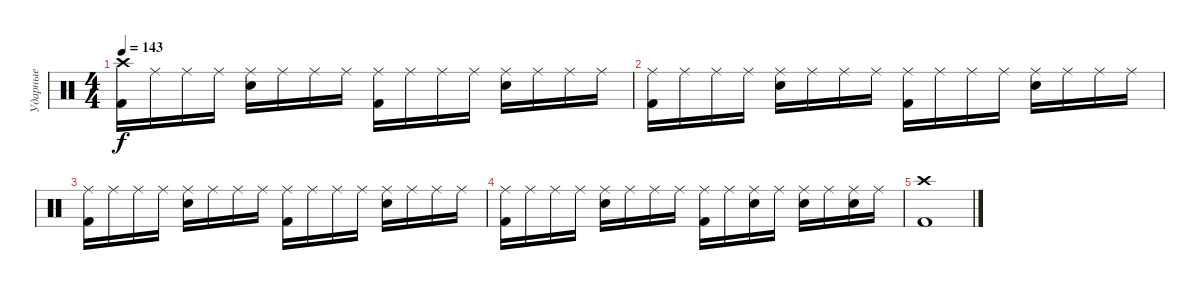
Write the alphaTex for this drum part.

\track ("Ударные" "Ударные") {instrument percussion}
\staff {score}
\articulation defaults
\ts (4 4)
\tempo 143
\clef neutral
\ks c
("Crash high (hit)" "Kick (hit) 2").16{dy f} "Ride (middle)".16 "Ride (middle)".16 "Ride (middle)".16 ("Ride (middle)" "Electric Snare (hit)").16 "Ride (middle)".16 "Ride (middle)".16 "Ride (middle)".16 ("Ride (middle)" "Kick (hit) 2").16 "Ride (middle)".16 "Ride (middle)".16 "Ride (middle)".16 ("Ride (middle)" "Electric Snare (hit)").16 "Ride (middle)".16 "Ride (middle)".16 "Ride (middle)".16 |
("Ride (middle)" "Kick (hit) 2").16 "Ride (middle)".16 "Ride (middle)".16 "Ride (middle)".16 ("Ride (middle)" "Electric Snare (hit)").16 "Ride (middle)".16 "Ride (middle)".16 "Ride (middle)".16 ("Ride (middle)" "Kick (hit) 2").16 "Ride (middle)".16 "Ride (middle)".16 "Ride (middle)".16 ("Ride (middle)" "Electric Snare (hit)").16 "Ride (middle)".16 "Ride (middle)".16 "Ride (middle)".16 |
("Ride (middle)" "Kick (hit) 2").16 "Ride (middle)".16 "Ride (middle)".16 "Ride (middle)".16 ("Ride (middle)" "Electric Snare (hit)").16 "Ride (middle)".16 "Ride (middle)".16 "Ride (middle)".16 ("Ride (middle)" "Kick (hit) 2").16 "Ride (middle)".16 "Ride (middle)".16 "Ride (middle)".16 ("Ride (middle)" "Electric Snare (hit)").16 "Ride (middle)".16 "Ride (middle)".16 "Ride (middle)".16 |
("Ride (middle)" "Kick (hit) 2").16 "Ride (middle)".16 "Ride (middle)".16 "Ride (middle)".16 ("Ride (middle)" "Electric Snare (hit)").16 "Ride (middle)".16 "Ride (middle)".16 "Ride (middle)".16 ("Ride (middle)" "Kick (hit) 2").16 "Ride (middle)".16 ("Ride (middle)" "Electric Snare (hit)").16 "Ride (middle)".16 ("Ride (middle)" "Electric Snare (hit)").16 "Ride (middle)".16 ("Ride (middle)" "Electric Snare (hit)").16 "Ride (middle)".16 |
("Crash high (hit)" "Kick (hit) 2").1
